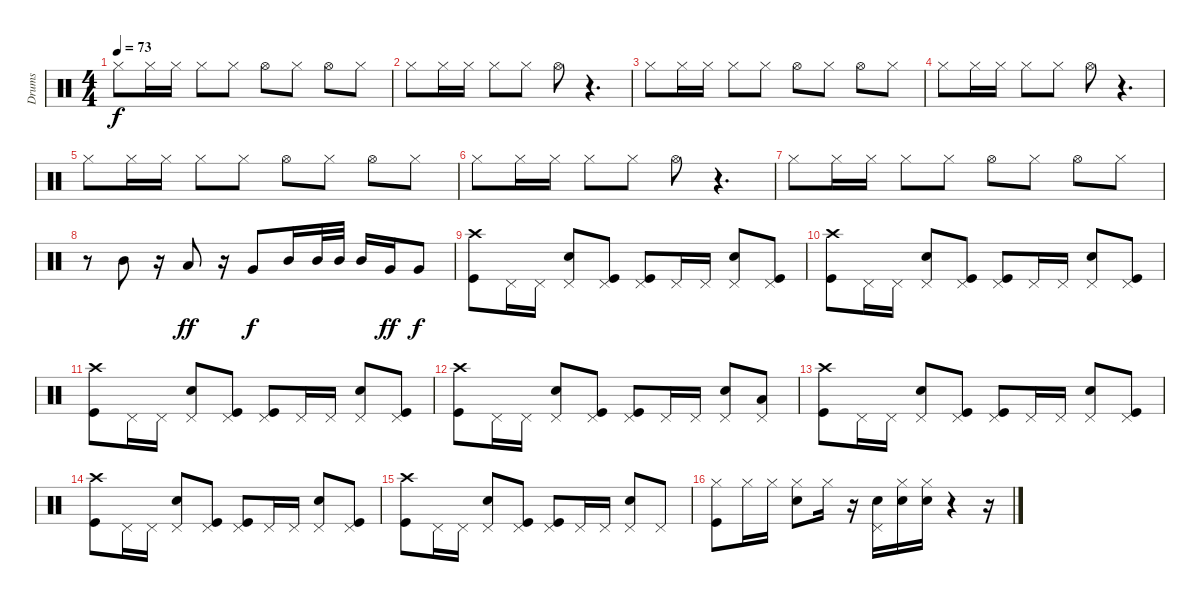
\track ("Drums" "Drums") {instrument percussion}
\staff {score}
\articulation defaults
\ts (4 4)
\tempo 73
\clef neutral
\ks c "Hi-Hat (closed)".8{dy f} "Hi-Hat (closed)".16 "Hi-Hat (closed)".16 "Hi-Hat (closed)".8 "Hi-Hat (closed)".8 "Hi-Hat (open)".8 "Hi-Hat (closed)".8 "Hi-Hat (open)".8 "Hi-Hat (closed)".8
|
"Hi-Hat (closed)".8 "Hi-Hat (closed)".16 "Hi-Hat (closed)".16 "Hi-Hat (closed)".8 "Hi-Hat (closed)".8 "Hi-Hat (open)".8 r.4{d} |
"Hi-Hat (closed)".8 "Hi-Hat (closed)".16 "Hi-Hat (closed)".16 "Hi-Hat (closed)".8 "Hi-Hat (closed)".8 "Hi-Hat (open)".8 "Hi-Hat (closed)".8 "Hi-Hat (open)".8 "Hi-Hat (closed)".8 |
"Hi-Hat (closed)".8 "Hi-Hat (closed)".16 "Hi-Hat (closed)".16 "Hi-Hat (closed)".8 "Hi-Hat (closed)".8 "Hi-Hat (open)".8 r.4{d} |
"Hi-Hat (closed)".8 "Hi-Hat (closed)".16 "Hi-Hat (closed)".16 "Hi-Hat (closed)".8 "Hi-Hat (closed)".8 "Hi-Hat (open)".8 "Hi-Hat (closed)".8 "Hi-Hat (open)".8 "Hi-Hat (closed)".8 |
"Hi-Hat (closed)".8 "Hi-Hat (closed)".16 "Hi-Hat (closed)".16 "Hi-Hat (closed)".8 "Hi-Hat (closed)".8 "Hi-Hat (open)".8 r.4{d} |
"Hi-Hat (closed)".8 "Hi-Hat (closed)".16 "Hi-Hat (closed)".16 "Hi-Hat (closed)".8 "Hi-Hat (closed)".8 "Hi-Hat (open)".8 "Hi-Hat (closed)".8 "Hi-Hat (open)".8 "Hi-Hat (closed)".8 |
r.8 "Mid Tom (hit)".8 r.16 "Low Tom (hit)".8{dy ff} r.16 "Very Low Tom (hit)".8{dy f} "Mid Tom (hit)".16 "Mid Tom (hit)".32 "Mid Tom (hit)".32 "Mid Tom (hit)".16 "Very Low Tom (hit)".16{dy ff} "Very Low Tom (hit)".8{dy f} |
("Crash high (hit)" "Kick (hit)").8 "Pedal Hi-Hat (hit)".16 "Pedal Hi-Hat (hit)".16 ("Snare (hit) 2" "Pedal Hi-Hat (hit)").8 ("Kick (hit)" "Pedal Hi-Hat (hit)").8 ("Kick (hit)" "Pedal Hi-Hat (hit)").8 "Pedal Hi-Hat (hit)".16 "Pedal Hi-Hat (hit)".16 ("Snare (hit) 2" "Pedal Hi-Hat (hit)").8 ("Pedal Hi-Hat (hit)" "Kick (hit)").8 |
("Crash high (hit)" "Kick (hit)").8 "Pedal Hi-Hat (hit)".16 "Pedal Hi-Hat (hit)".16 ("Snare (hit) 2" "Pedal Hi-Hat (hit)").8 ("Kick (hit)" "Pedal Hi-Hat (hit)").8 ("Kick (hit)" "Pedal Hi-Hat (hit)").8 "Pedal Hi-Hat (hit)".16 "Pedal Hi-Hat (hit)".16 ("Snare (hit) 2" "Pedal Hi-Hat (hit)").8 ("Pedal Hi-Hat (hit)" "Kick (hit)").8 |
("Crash high (hit)" "Kick (hit)").8 "Pedal Hi-Hat (hit)".16 "Pedal Hi-Hat (hit)".16 ("Snare (hit) 2" "Pedal Hi-Hat (hit)").8 ("Kick (hit)" "Pedal Hi-Hat (hit)").8 ("Kick (hit)" "Pedal Hi-Hat (hit)").8 "Pedal Hi-Hat (hit)".16 "Pedal Hi-Hat (hit)".16 ("Snare (hit) 2" "Pedal Hi-Hat (hit)").8 ("Pedal Hi-Hat (hit)" "Kick (hit)").8 |
("Crash high (hit)" "Kick (hit)").8 "Pedal Hi-Hat (hit)".16 "Pedal Hi-Hat (hit)".16 ("Snare (hit) 2" "Pedal Hi-Hat (hit)").8 ("Kick (hit)" "Pedal Hi-Hat (hit)").8 ("Kick (hit)" "Pedal Hi-Hat (hit)").8 "Pedal Hi-Hat (hit)".16 "Pedal Hi-Hat (hit)".16 ("Snare (hit) 2" "Pedal Hi-Hat (hit)").8 ("Pedal Hi-Hat (hit)" "Low Tom (hit)").8 |
("Crash high (hit)" "Kick (hit)").8 "Pedal Hi-Hat (hit)".16 "Pedal Hi-Hat (hit)".16 ("Snare (hit) 2" "Pedal Hi-Hat (hit)").8 ("Kick (hit)" "Pedal Hi-Hat (hit)").8 ("Kick (hit)" "Pedal Hi-Hat (hit)").8 "Pedal Hi-Hat (hit)".16 "Pedal Hi-Hat (hit)".16 ("Snare (hit) 2" "Pedal Hi-Hat (hit)").8 ("Pedal Hi-Hat (hit)" "Kick (hit)").8 |
("Crash high (hit)" "Kick (hit)").8 "Pedal Hi-Hat (hit)".16 "Pedal Hi-Hat (hit)".16 ("Snare (hit) 2" "Pedal Hi-Hat (hit)").8 ("Kick (hit)" "Pedal Hi-Hat (hit)").8 ("Kick (hit)" "Pedal Hi-Hat (hit)").8 "Pedal Hi-Hat (hit)".16 "Pedal Hi-Hat (hit)".16 ("Snare (hit) 2" "Pedal Hi-Hat (hit)").8 ("Pedal Hi-Hat (hit)" "Kick (hit)").8 |
("Crash high (hit)" "Kick (hit)").8 "Pedal Hi-Hat (hit)".16 "Pedal Hi-Hat (hit)".16 ("Snare (hit) 2" "Pedal Hi-Hat (hit)").8 ("Kick (hit)" "Pedal Hi-Hat (hit)").8 ("Kick (hit)" "Pedal Hi-Hat (hit)").8 "Pedal Hi-Hat (hit)".16 "Pedal Hi-Hat (hit)".16 ("Snare (hit) 2" "Pedal Hi-Hat (hit)").8 "Pedal Hi-Hat (hit)".8 |
("Hi-Hat (closed)" "Kick (hit)").8 "Hi-Hat (closed)".16 "Hi-Hat (closed)".16 ("Hi-Hat (closed)" "Snare (hit) 2").8 "Hi-Hat (closed)".16 r.16 ("Pedal Hi-Hat (hit)" "Snare (hit) 2").16 ("Hi-Hat (closed)" "Snare (hit) 2").16 ("Hi-Hat (closed)" "Snare (hit) 2").16 r.4 r.16
